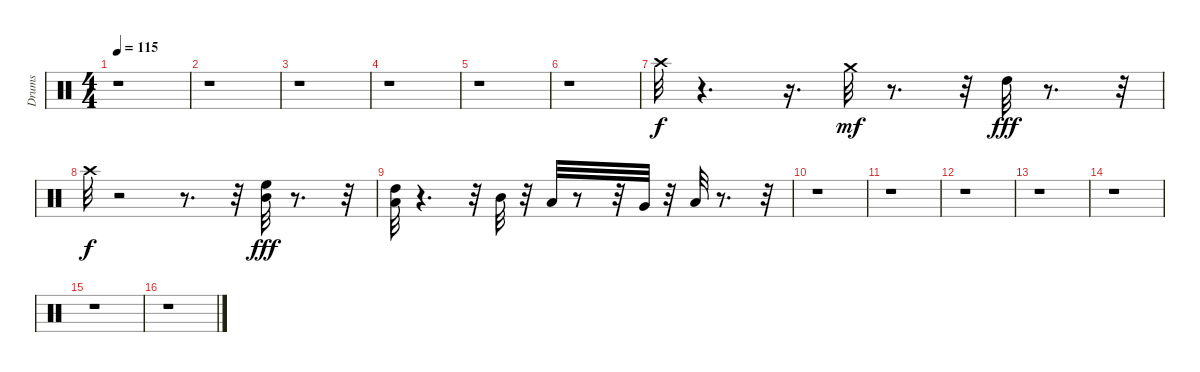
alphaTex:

\track ("Drums" "Drums") {instrument percussion}
\staff {score}
\articulation defaults
\ts (4 4)
\tempo 115
\clef neutral
\ks c
r.1{dy fff} |
r.1 |
r.1 |
r.1 |
r.1 |
r.1 |
"Crash high (hit)".32{dy f} r.4{d} r.16{d} "Crash medium (hit)".32{dy mf} r.8{d} r.32 "High Tom (hit)".32{dy fff} r.8{d} r.32 |
"Crash high (hit)".32{dy f} r.2 r.8{d} r.32 ("High Floor Tom (hit)" "Mid Tom (hit)").32{dy fff} r.8{d} r.32 |
("High Tom (hit)" "Low Tom (hit)").32 r.4{d} r.32 "Mid Tom (hit)".32 r.32 "Low Tom (hit)".32 r.8 r.32 "Very Low Tom (hit)".32 r.32 "Low Floor Tom (hit)".32 r.8{d} r.32 |
r.1 |
r.1 |
r.1 |
r.1 |
r.1 |
r.1 |
r.1
